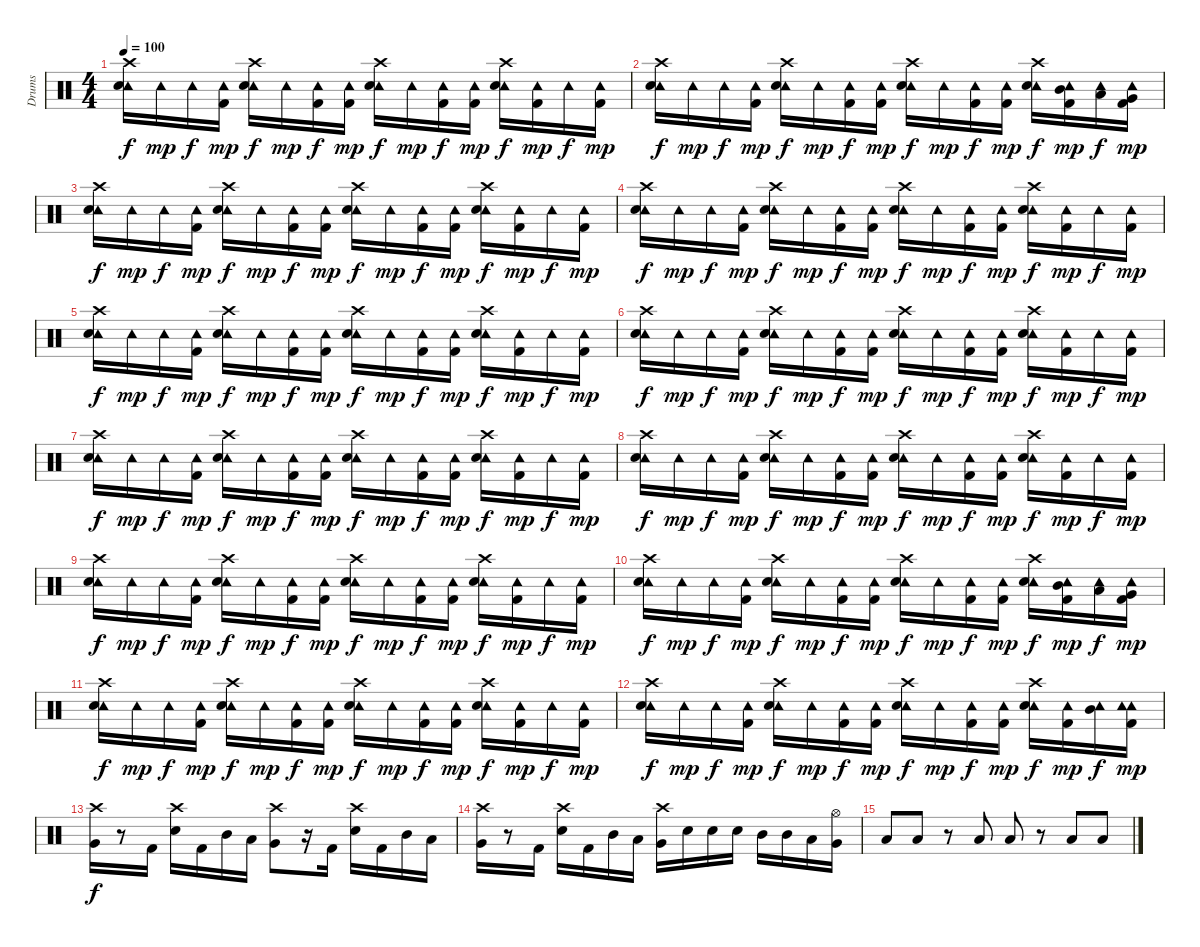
\track ("Drums" "Drums") {instrument percussion}
\staff {score}
\articulation defaults
\ts (4 4)
\tempo 100
\clef neutral
\ks c
("Crash high (hit)" "Tambourine (hit)" "Electric Snare (hit)").16{dy f} "Tambourine (hit)".16{dy mp} "Tambourine (hit)".16{dy f} ("Tambourine (hit)" "Kick (hit) 2").16{dy mp} ("Crash high (hit)" "Tambourine (hit)" "Electric Snare (hit)").16{dy f} "Tambourine (hit)".16{dy mp} ("Tambourine (hit)" "Kick (hit) 2").16{dy f} ("Tambourine (hit)" "Kick (hit) 2").16{dy mp} ("Crash high (hit)" "Tambourine (hit)" "Electric Snare (hit)").16{dy f} "Tambourine (hit)".16{dy mp} ("Tambourine (hit)" "Kick (hit) 2").16{dy f} ("Tambourine (hit)" "Kick (hit) 2").16{dy mp} ("Crash high (hit)" "Tambourine (hit)" "Electric Snare (hit)").16{dy f} ("Tambourine (hit)" "Kick (hit) 2").16{dy mp} "Tambourine (hit)".16{dy f} ("Tambourine (hit)" "Kick (hit) 2").16{dy mp} |
("Crash high (hit)" "Tambourine (hit)" "Electric Snare (hit)").16{dy f} "Tambourine (hit)".16{dy mp} "Tambourine (hit)".16{dy f} ("Tambourine (hit)" "Kick (hit) 2").16{dy mp} ("Crash high (hit)" "Tambourine (hit)" "Electric Snare (hit)").16{dy f} "Tambourine (hit)".16{dy mp} ("Tambourine (hit)" "Kick (hit) 2").16{dy f} ("Tambourine (hit)" "Kick (hit) 2").16{dy mp} ("Crash high (hit)" "Tambourine (hit)" "Electric Snare (hit)").16{dy f} "Tambourine (hit)".16{dy mp} ("Tambourine (hit)" "Kick (hit) 2").16{dy f} ("Tambourine (hit)" "Kick (hit) 2").16{dy mp} ("Crash high (hit)" "Tambourine (hit)" "Electric Snare (hit)").16{dy f} ("Tambourine (hit)" "Mid Tom (hit)" "Kick (hit) 2").16{dy mp} ("Tambourine (hit)" "Low Tom (hit)").16{dy f} ("Tambourine (hit)" "Very Low Tom (hit)" "Kick (hit) 2").16{dy mp} |
("Crash high (hit)" "Tambourine (hit)" "Electric Snare (hit)").16{dy f} "Tambourine (hit)".16{dy mp} "Tambourine (hit)".16{dy f} ("Tambourine (hit)" "Kick (hit) 2").16{dy mp} ("Crash high (hit)" "Tambourine (hit)" "Electric Snare (hit)").16{dy f} "Tambourine (hit)".16{dy mp} ("Tambourine (hit)" "Kick (hit) 2").16{dy f} ("Tambourine (hit)" "Kick (hit) 2").16{dy mp} ("Crash high (hit)" "Tambourine (hit)" "Electric Snare (hit)").16{dy f} "Tambourine (hit)".16{dy mp} ("Tambourine (hit)" "Kick (hit) 2").16{dy f} ("Tambourine (hit)" "Kick (hit) 2").16{dy mp} ("Crash high (hit)" "Tambourine (hit)" "Electric Snare (hit)").16{dy f} ("Tambourine (hit)" "Kick (hit) 2").16{dy mp} "Tambourine (hit)".16{dy f} ("Tambourine (hit)" "Kick (hit) 2").16{dy mp} |
("Crash high (hit)" "Tambourine (hit)" "Electric Snare (hit)").16{dy f} "Tambourine (hit)".16{dy mp} "Tambourine (hit)".16{dy f} ("Tambourine (hit)" "Kick (hit) 2").16{dy mp} ("Crash high (hit)" "Tambourine (hit)" "Electric Snare (hit)").16{dy f} "Tambourine (hit)".16{dy mp} ("Tambourine (hit)" "Kick (hit) 2").16{dy f} ("Tambourine (hit)" "Kick (hit) 2").16{dy mp} ("Crash high (hit)" "Tambourine (hit)" "Electric Snare (hit)").16{dy f} "Tambourine (hit)".16{dy mp} ("Tambourine (hit)" "Kick (hit) 2").16{dy f} ("Tambourine (hit)" "Kick (hit) 2").16{dy mp} ("Crash high (hit)" "Tambourine (hit)" "Electric Snare (hit)").16{dy f} ("Tambourine (hit)" "Kick (hit) 2").16{dy mp} "Tambourine (hit)".16{dy f} ("Tambourine (hit)" "Kick (hit) 2").16{dy mp} |
("Crash high (hit)" "Tambourine (hit)" "Electric Snare (hit)").16{dy f} "Tambourine (hit)".16{dy mp} "Tambourine (hit)".16{dy f} ("Tambourine (hit)" "Kick (hit) 2").16{dy mp} ("Crash high (hit)" "Tambourine (hit)" "Electric Snare (hit)").16{dy f} "Tambourine (hit)".16{dy mp} ("Tambourine (hit)" "Kick (hit) 2").16{dy f} ("Tambourine (hit)" "Kick (hit) 2").16{dy mp} ("Crash high (hit)" "Tambourine (hit)" "Electric Snare (hit)").16{dy f} "Tambourine (hit)".16{dy mp} ("Tambourine (hit)" "Kick (hit) 2").16{dy f} ("Tambourine (hit)" "Kick (hit) 2").16{dy mp} ("Crash high (hit)" "Tambourine (hit)" "Electric Snare (hit)").16{dy f} ("Tambourine (hit)" "Kick (hit) 2").16{dy mp} "Tambourine (hit)".16{dy f} ("Tambourine (hit)" "Kick (hit) 2").16{dy mp} |
("Crash high (hit)" "Tambourine (hit)" "Electric Snare (hit)").16{dy f} "Tambourine (hit)".16{dy mp} "Tambourine (hit)".16{dy f} ("Tambourine (hit)" "Kick (hit) 2").16{dy mp} ("Crash high (hit)" "Tambourine (hit)" "Electric Snare (hit)").16{dy f} "Tambourine (hit)".16{dy mp} ("Tambourine (hit)" "Kick (hit) 2").16{dy f} ("Tambourine (hit)" "Kick (hit) 2").16{dy mp} ("Crash high (hit)" "Tambourine (hit)" "Electric Snare (hit)").16{dy f} "Tambourine (hit)".16{dy mp} ("Tambourine (hit)" "Kick (hit) 2").16{dy f} ("Tambourine (hit)" "Kick (hit) 2").16{dy mp} ("Crash high (hit)" "Tambourine (hit)" "Electric Snare (hit)").16{dy f} ("Tambourine (hit)" "Kick (hit) 2").16{dy mp} "Tambourine (hit)".16{dy f} ("Tambourine (hit)" "Kick (hit) 2").16{dy mp} |
("Crash high (hit)" "Tambourine (hit)" "Electric Snare (hit)").16{dy f} "Tambourine (hit)".16{dy mp} "Tambourine (hit)".16{dy f} ("Tambourine (hit)" "Kick (hit) 2").16{dy mp} ("Crash high (hit)" "Tambourine (hit)" "Electric Snare (hit)").16{dy f} "Tambourine (hit)".16{dy mp} ("Tambourine (hit)" "Kick (hit) 2").16{dy f} ("Tambourine (hit)" "Kick (hit) 2").16{dy mp} ("Crash high (hit)" "Tambourine (hit)" "Electric Snare (hit)").16{dy f} "Tambourine (hit)".16{dy mp} ("Tambourine (hit)" "Kick (hit) 2").16{dy f} ("Tambourine (hit)" "Kick (hit) 2").16{dy mp} ("Crash high (hit)" "Tambourine (hit)" "Electric Snare (hit)").16{dy f} ("Tambourine (hit)" "Kick (hit) 2").16{dy mp} "Tambourine (hit)".16{dy f} ("Tambourine (hit)" "Kick (hit) 2").16{dy mp} |
("Crash high (hit)" "Tambourine (hit)" "Electric Snare (hit)").16{dy f} "Tambourine (hit)".16{dy mp} "Tambourine (hit)".16{dy f} ("Tambourine (hit)" "Kick (hit) 2").16{dy mp} ("Crash high (hit)" "Tambourine (hit)" "Electric Snare (hit)").16{dy f} "Tambourine (hit)".16{dy mp} ("Tambourine (hit)" "Kick (hit) 2").16{dy f} ("Tambourine (hit)" "Kick (hit) 2").16{dy mp} ("Crash high (hit)" "Tambourine (hit)" "Electric Snare (hit)").16{dy f} "Tambourine (hit)".16{dy mp} ("Tambourine (hit)" "Kick (hit) 2").16{dy f} ("Tambourine (hit)" "Kick (hit) 2").16{dy mp} ("Crash high (hit)" "Tambourine (hit)" "Electric Snare (hit)").16{dy f} ("Tambourine (hit)" "Kick (hit) 2").16{dy mp} "Tambourine (hit)".16{dy f} ("Tambourine (hit)" "Kick (hit) 2").16{dy mp} |
("Crash high (hit)" "Tambourine (hit)" "Electric Snare (hit)").16{dy f} "Tambourine (hit)".16{dy mp} "Tambourine (hit)".16{dy f} ("Tambourine (hit)" "Kick (hit) 2").16{dy mp} ("Crash high (hit)" "Tambourine (hit)" "Electric Snare (hit)").16{dy f} "Tambourine (hit)".16{dy mp} ("Tambourine (hit)" "Kick (hit) 2").16{dy f} ("Tambourine (hit)" "Kick (hit) 2").16{dy mp} ("Crash high (hit)" "Tambourine (hit)" "Electric Snare (hit)").16{dy f} "Tambourine (hit)".16{dy mp} ("Tambourine (hit)" "Kick (hit) 2").16{dy f} ("Tambourine (hit)" "Kick (hit) 2").16{dy mp} ("Crash high (hit)" "Tambourine (hit)" "Electric Snare (hit)").16{dy f} ("Tambourine (hit)" "Kick (hit) 2").16{dy mp} "Tambourine (hit)".16{dy f} ("Tambourine (hit)" "Kick (hit) 2").16{dy mp} |
("Crash high (hit)" "Tambourine (hit)" "Electric Snare (hit)").16{dy f} "Tambourine (hit)".16{dy mp} "Tambourine (hit)".16{dy f} ("Tambourine (hit)" "Kick (hit) 2").16{dy mp} ("Crash high (hit)" "Tambourine (hit)" "Electric Snare (hit)").16{dy f} "Tambourine (hit)".16{dy mp} ("Tambourine (hit)" "Kick (hit) 2").16{dy f} ("Tambourine (hit)" "Kick (hit) 2").16{dy mp} ("Crash high (hit)" "Tambourine (hit)" "Electric Snare (hit)").16{dy f} "Tambourine (hit)".16{dy mp} ("Tambourine (hit)" "Kick (hit) 2").16{dy f} ("Tambourine (hit)" "Kick (hit) 2").16{dy mp} ("Crash high (hit)" "Tambourine (hit)" "Electric Snare (hit)").16{dy f} ("Tambourine (hit)" "Mid Tom (hit)" "Kick (hit) 2").16{dy mp} ("Tambourine (hit)" "Low Tom (hit)").16{dy f} ("Tambourine (hit)" "Very Low Tom (hit)" "Kick (hit) 2").16{dy mp} |
("Crash high (hit)" "Tambourine (hit)" "Electric Snare (hit)").16{dy f} "Tambourine (hit)".16{dy mp} "Tambourine (hit)".16{dy f} ("Tambourine (hit)" "Kick (hit) 2").16{dy mp} ("Crash high (hit)" "Tambourine (hit)" "Electric Snare (hit)").16{dy f} "Tambourine (hit)".16{dy mp} ("Tambourine (hit)" "Kick (hit) 2").16{dy f} ("Tambourine (hit)" "Kick (hit) 2").16{dy mp} ("Crash high (hit)" "Tambourine (hit)" "Electric Snare (hit)").16{dy f} "Tambourine (hit)".16{dy mp} ("Tambourine (hit)" "Kick (hit) 2").16{dy f} ("Tambourine (hit)" "Kick (hit) 2").16{dy mp} ("Crash high (hit)" "Tambourine (hit)" "Electric Snare (hit)").16{dy f} ("Tambourine (hit)" "Kick (hit) 2").16{dy mp} "Tambourine (hit)".16{dy f} ("Tambourine (hit)" "Kick (hit) 2").16{dy mp} |
("Crash high (hit)" "Tambourine (hit)" "Electric Snare (hit)").16{dy f} "Tambourine (hit)".16{dy mp} "Tambourine (hit)".16{dy f} ("Tambourine (hit)" "Kick (hit) 2").16{dy mp} ("Crash high (hit)" "Tambourine (hit)" "Electric Snare (hit)").16{dy f} "Tambourine (hit)".16{dy mp} ("Tambourine (hit)" "Kick (hit) 2").16{dy f} ("Tambourine (hit)" "Kick (hit) 2").16{dy mp} ("Crash high (hit)" "Tambourine (hit)" "Electric Snare (hit)").16{dy f} "Tambourine (hit)".16{dy mp} ("Tambourine (hit)" "Kick (hit) 2").16{dy f} ("Tambourine (hit)" "Kick (hit) 2").16{dy mp} ("Crash high (hit)" "Tambourine (hit)" "Electric Snare (hit)").16{dy f} ("Tambourine (hit)" "Kick (hit) 2").16{dy mp} ("Tambourine (hit)" "Mid Tom (hit)").16{dy f} ("Tambourine (hit)" "Tambourine (hit)" "Kick (hit) 2").16{dy mp} |
("Crash high (hit)" "Very Low Tom (hit)").16{dy f} r.8 "Kick (hit) 2".16 ("Crash high (hit)" "Electric Snare (hit)").16 "Kick (hit) 2".16 "Mid Tom (hit)".16 "Low Tom (hit)".16 ("Crash high (hit)" "Very Low Tom (hit)").8 r.16 "Kick (hit) 2".16 ("Crash high (hit)" "Electric Snare (hit)").16 "Kick (hit) 2".16 "Mid Tom (hit)".16 "Low Tom (hit)".16 |
("Crash high (hit)" "Very Low Tom (hit)").16 r.8 "Kick (hit) 2".16 ("Crash high (hit)" "Electric Snare (hit)").16 "Kick (hit) 2".16 "Mid Tom (hit)".16 "Low Tom (hit)".16 ("Crash high (hit)" "Very Low Tom (hit)").16 "Electric Snare (hit)".16 "Electric Snare (hit)".16 "Electric Snare (hit)".16 "Mid Tom (hit)".16 "Mid Tom (hit)".16 "Low Tom (hit)".16 ("Hi-Hat (open)" "Very Low Tom (hit)").16 |
"Low Floor Tom (hit)".8 "Low Floor Tom (hit)".8 r.8 "Low Floor Tom (hit)".8 "Low Floor Tom (hit)".8 r.8 "Low Floor Tom (hit)".8 "Low Floor Tom (hit)".8
